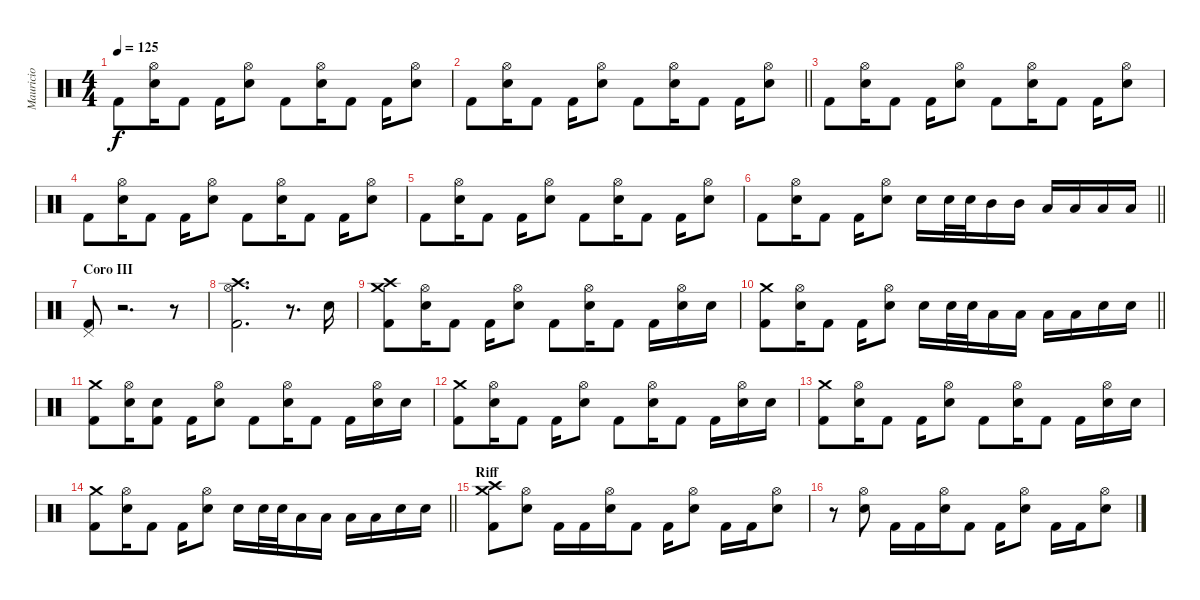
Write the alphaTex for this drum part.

\track ("Mauricio" "Mauricio") {instrument percussion}
\staff {score}
\articulation defaults
\ts (4 4)
\tempo 125
\clef neutral
\ks c "Kick (hit) 2".8{dy f}
("Hi-Hat (open)" "Electric Snare (hit)").16 "Kick (hit) 2".8 "Kick (hit) 2".16 ("Hi-Hat (open)" "Electric Snare (hit)").8 "Kick (hit) 2".8 ("Hi-Hat (open)" "Electric Snare (hit)").16 "Kick (hit) 2".8 "Kick (hit) 2".16 ("Hi-Hat (open)" "Electric Snare (hit)").8 |
\barLineRight lightlight "Kick (hit) 2".8
("Hi-Hat (open)" "Electric Snare (hit)").16 "Kick (hit) 2".8 "Kick (hit) 2".16 ("Hi-Hat (open)" "Electric Snare (hit)").8 "Kick (hit) 2".8 ("Hi-Hat (open)" "Electric Snare (hit)").16 "Kick (hit) 2".8 "Kick (hit) 2".16 ("Hi-Hat (open)" "Electric Snare (hit)").8 |
"Kick (hit) 2".8 ("Hi-Hat (open)" "Electric Snare (hit)").16 "Kick (hit) 2".8 "Kick (hit) 2".16 ("Hi-Hat (open)" "Electric Snare (hit)").8 "Kick (hit) 2".8 ("Hi-Hat (open)" "Electric Snare (hit)").16 "Kick (hit) 2".8 "Kick (hit) 2".16 ("Hi-Hat (open)" "Electric Snare (hit)").8 |
"Kick (hit) 2".8 ("Hi-Hat (open)" "Electric Snare (hit)").16 "Kick (hit) 2".8 "Kick (hit) 2".16 ("Hi-Hat (open)" "Electric Snare (hit)").8 "Kick (hit) 2".8 ("Hi-Hat (open)" "Electric Snare (hit)").16 "Kick (hit) 2".8 "Kick (hit) 2".16 ("Hi-Hat (open)" "Electric Snare (hit)").8 |
"Kick (hit) 2".8 ("Hi-Hat (open)" "Electric Snare (hit)").16 "Kick (hit) 2".8 "Kick (hit) 2".16 ("Hi-Hat (open)" "Electric Snare (hit)").8 "Kick (hit) 2".8 ("Hi-Hat (open)" "Electric Snare (hit)").16 "Kick (hit) 2".8 "Kick (hit) 2".16 ("Hi-Hat (open)" "Electric Snare (hit)").8 |
\barLineRight lightlight "Kick (hit) 2".8
("Hi-Hat (open)" "Electric Snare (hit)").16 "Kick (hit) 2".8 "Kick (hit) 2".16 ("Hi-Hat (open)" "Electric Snare (hit)").8 "Electric Snare (hit)".16 "Electric Snare (hit)".32 "Electric Snare (hit)".32 "Mid Tom (hit)".16 "Mid Tom (hit)".16 "Low Tom (hit)".16 "Low Tom (hit)".16 "Low Floor Tom (hit)".16 "Low Floor Tom (hit)".16 |
\section ("" "Coro III")
("Pedal Hi-Hat (hit)" "Kick (hit) 2").8 r.2{d} r.8 |
("Crash high (hit)" "Hi-Hat (open)" "Kick (hit) 2").2{d} r.8{d} "Electric Snare (hit)".16 |
("Crash medium (hit)" "Crash high (hit)" "Kick (hit) 2").8 ("Hi-Hat (open)" "Electric Snare (hit)").16 "Kick (hit) 2".8 "Kick (hit) 2".16 ("Hi-Hat (open)" "Electric Snare (hit)").8 "Kick (hit) 2".8 ("Hi-Hat (open)" "Electric Snare (hit)").16 "Kick (hit) 2".8 "Kick (hit) 2".16 ("Hi-Hat (open)" "Electric Snare (hit)").16 "Electric Snare (hit)".16 |
\barLineRight lightlight
("Crash medium (hit)" "Kick (hit) 2").8 ("Hi-Hat (open)" "Electric Snare (hit)").16 "Kick (hit) 2".8 "Kick (hit) 2".16 ("Hi-Hat (open)" "Electric Snare (hit)").8 "Electric Snare (hit)".16 "Electric Snare (hit)".32 "Electric Snare (hit)".32 "Low Tom (hit)".16 "Low Tom (hit)".16 "Low Floor Tom (hit)".16 "Low Floor Tom (hit)".16 "Electric Snare (hit)".16 "Electric Snare (hit)".16 |
("Crash medium (hit)" "Kick (hit) 2").8 ("Hi-Hat (open)" "Electric Snare (hit)").16 ("Snare (hit)" "Kick (hit) 2").8 "Kick (hit) 2".16 ("Hi-Hat (open)" "Electric Snare (hit)").8 "Kick (hit) 2".8 ("Hi-Hat (open)" "Electric Snare (hit)").16 "Kick (hit) 2".8 "Kick (hit) 2".16 ("Hi-Hat (open)" "Electric Snare (hit)").16 "Electric Snare (hit)".16 |
("Crash medium (hit)" "Kick (hit) 2").8 ("Hi-Hat (open)" "Electric Snare (hit)").16 "Kick (hit) 2".8 "Kick (hit) 2".16 ("Hi-Hat (open)" "Electric Snare (hit)").8 "Kick (hit) 2".8 ("Hi-Hat (open)" "Electric Snare (hit)").16 "Kick (hit) 2".8 "Kick (hit) 2".16 ("Hi-Hat (open)" "Electric Snare (hit)").16 "Electric Snare (hit)".16 |
("Crash medium (hit)" "Kick (hit) 2").8 ("Hi-Hat (open)" "Electric Snare (hit)").16 "Kick (hit) 2".8 "Kick (hit) 2".16 ("Hi-Hat (open)" "Electric Snare (hit)").8 "Kick (hit) 2".8 ("Hi-Hat (open)" "Electric Snare (hit)").16 "Kick (hit) 2".8 "Kick (hit) 2".16 ("Hi-Hat (open)" "Electric Snare (hit)").16 "Electric Snare (hit)".16 |
\barLineRight lightlight
("Crash medium (hit)" "Kick (hit) 2").8 ("Hi-Hat (open)" "Electric Snare (hit)").16 "Kick (hit) 2".8 "Kick (hit) 2".16 ("Hi-Hat (open)" "Electric Snare (hit)").8 "Electric Snare (hit)".16 "Electric Snare (hit)".32 "Electric Snare (hit)".32 "Low Tom (hit)".16 "Low Tom (hit)".16 "Low Floor Tom (hit)".16 "Low Floor Tom (hit)".16 "Electric Snare (hit)".16 "Electric Snare (hit)".16 |
\section ("" "Riff")
("Crash medium (hit)" "Crash high (hit)" "Kick (hit) 2").8 ("Hi-Hat (open)" "Electric Snare (hit)").8 "Kick (hit) 2".16 "Kick (hit) 2".16 ("Hi-Hat (open)" "Electric Snare (hit)").16 "Kick (hit) 2".8 "Kick (hit) 2".16 ("Hi-Hat (open)" "Electric Snare (hit)").8 "Kick (hit) 2".16 "Kick (hit) 2".16 ("Hi-Hat (open)" "Electric Snare (hit)").8 |
r.8 ("Hi-Hat (open)" "Electric Snare (hit)").8 "Kick (hit) 2".16 "Kick (hit) 2".16 ("Hi-Hat (open)" "Electric Snare (hit)").16 "Kick (hit) 2".8 "Kick (hit) 2".16 ("Hi-Hat (open)" "Electric Snare (hit)").8 "Kick (hit) 2".16 "Kick (hit) 2".16 ("Hi-Hat (open)" "Electric Snare (hit)").8
